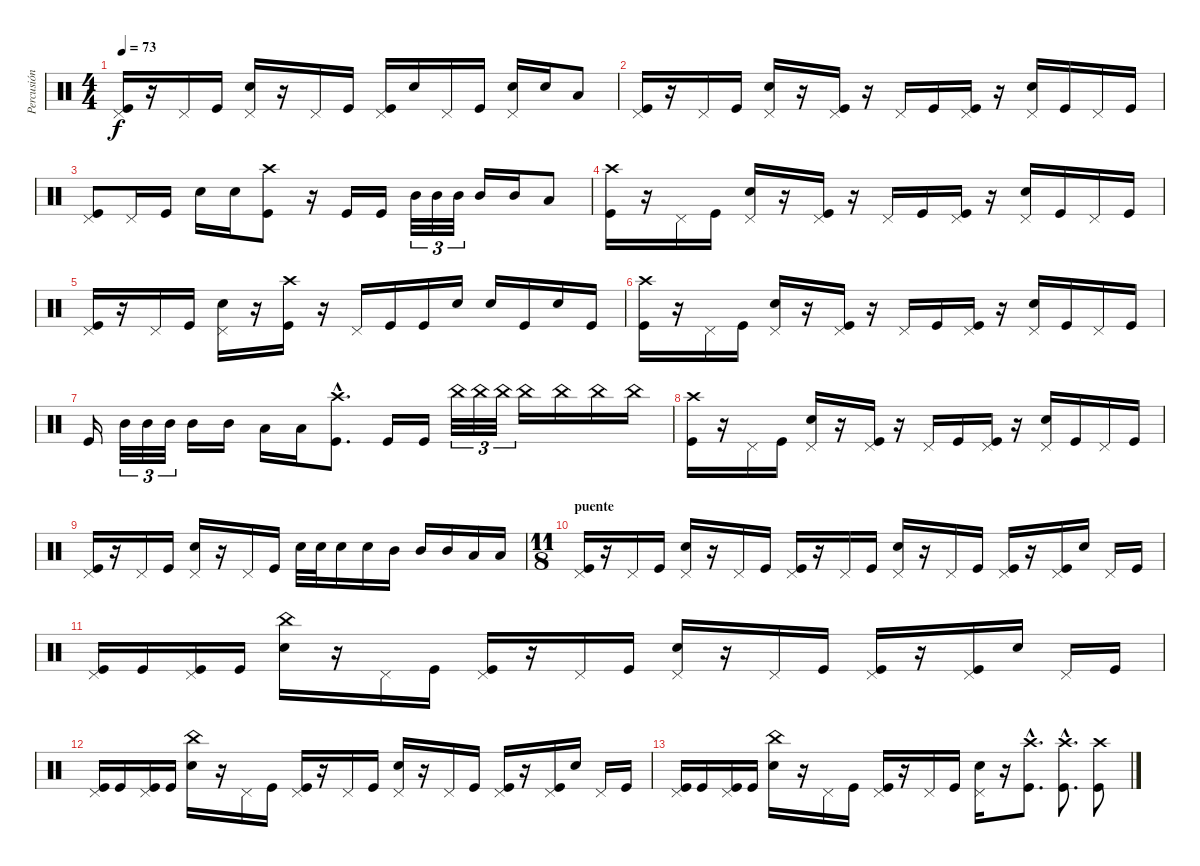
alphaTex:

\track ("Percusión" "Percusión") {instrument percussion}
\staff {score}
\articulation defaults
\ts (4 4)
\tempo 73
\clef neutral
\ks c
("Pedal Hi-Hat (hit)" "Kick (hit)").16{dy f} r.16 "Pedal Hi-Hat (hit)".16 "Kick (hit)".16 ("Pedal Hi-Hat (hit)" "Electric Snare (hit)").16 r.16 "Pedal Hi-Hat (hit)".16 "Kick (hit)".16 ("Pedal Hi-Hat (hit)" "Kick (hit)").16 "Electric Snare (hit)".16 "Pedal Hi-Hat (hit)".16 "Kick (hit)".16 ("Pedal Hi-Hat (hit)" "Electric Snare (hit)").16 "Electric Snare (hit)".16 "Low Tom (hit)".8 |
("Pedal Hi-Hat (hit)" "Kick (hit)").16 r.16 "Pedal Hi-Hat (hit)".16 "Kick (hit)".16 ("Pedal Hi-Hat (hit)" "Electric Snare (hit)").16 r.16 ("Pedal Hi-Hat (hit)" "Kick (hit)").16 r.16 "Pedal Hi-Hat (hit)".16 "Kick (hit)".16 ("Pedal Hi-Hat (hit)" "Kick (hit)").16 r.16 ("Pedal Hi-Hat (hit)" "Electric Snare (hit)").16 "Kick (hit)".16 "Pedal Hi-Hat (hit)".16 "Kick (hit)".16 |
("Pedal Hi-Hat (hit)" "Kick (hit)").8 "Pedal Hi-Hat (hit)".16 "Kick (hit)".16 "Electric Snare (hit)".16 "Electric Snare (hit)".16 ("Crash high (hit)" "Kick (hit)").8 r.16 "Kick (hit)".16 "Kick (hit)".16 "Mid Tom (hit)".32{tu (3 2)} "Mid Tom (hit)".32{tu (3 2)} "Mid Tom (hit)".32{tu (3 2)} "Mid Tom (hit)".16 "Mid Tom (hit)".16 "Low Tom (hit)".8 |
("Crash high (hit)" "Kick (hit)").16 r.16 "Pedal Hi-Hat (hit)".16 "Kick (hit)".16 ("Pedal Hi-Hat (hit)" "Electric Snare (hit)").16 r.16 ("Pedal Hi-Hat (hit)" "Kick (hit)").16 r.16 "Pedal Hi-Hat (hit)".16 "Kick (hit)".16 ("Pedal Hi-Hat (hit)" "Kick (hit)").16 r.16 ("Pedal Hi-Hat (hit)" "Electric Snare (hit)").16 "Kick (hit)".16 "Pedal Hi-Hat (hit)".16 "Kick (hit)".16 |
("Pedal Hi-Hat (hit)" "Kick (hit)").16 r.16 "Pedal Hi-Hat (hit)".16 "Kick (hit)".16 ("Pedal Hi-Hat (hit)" "Electric Snare (hit)").16 r.16 ("Crash high (hit)" "Kick (hit)").16 r.16 "Pedal Hi-Hat (hit)".16 "Kick (hit)".16 "Kick (hit)".16 "Electric Snare (hit)".16 "Electric Snare (hit)".16 "Kick (hit)".16 "Electric Snare (hit)".16 "Kick (hit)".16 |
("Crash high (hit)" "Kick (hit)").16 r.16 "Pedal Hi-Hat (hit)".16 "Kick (hit)".16 ("Pedal Hi-Hat (hit)" "Electric Snare (hit)").16 r.16 ("Pedal Hi-Hat (hit)" "Kick (hit)").16 r.16 "Pedal Hi-Hat (hit)".16 "Kick (hit)".16 ("Pedal Hi-Hat (hit)" "Kick (hit)").16 r.16 ("Pedal Hi-Hat (hit)" "Electric Snare (hit)").16 "Kick (hit)".16 "Pedal Hi-Hat (hit)".16 "Kick (hit)".16 |
"Kick (hit)".16 "Mid Tom (hit)".32{tu (3 2)} "Mid Tom (hit)".32{tu (3 2)} "Mid Tom (hit)".32{tu (3 2)} "Mid Tom (hit)".16 "Mid Tom (hit)".16 "Low Tom (hit)".16 "Low Tom (hit)".16 ("Crash high (hit)"{hac} "Kick (hit)"{hac}).8{d} "Kick (hit)".16 "Kick (hit)".16 "China (hit)".32{tu (3 2)} "China (hit)".32{tu (3 2)} "China (hit)".32{tu (3 2)} "China (hit)".16 "China (hit)".16 "China (hit)".16 "China (hit)".16 |
("Crash high (hit)" "Kick (hit)").16 r.16 "Pedal Hi-Hat (hit)".16 "Kick (hit)".16 ("Pedal Hi-Hat (hit)" "Electric Snare (hit)").16 r.16 ("Pedal Hi-Hat (hit)" "Kick (hit)").16 r.16 "Pedal Hi-Hat (hit)".16 "Kick (hit)".16 ("Pedal Hi-Hat (hit)" "Kick (hit)").16 r.16 ("Pedal Hi-Hat (hit)" "Electric Snare (hit)").16 "Kick (hit)".16 "Pedal Hi-Hat (hit)".16 "Kick (hit)".16 |
("Pedal Hi-Hat (hit)" "Kick (hit)").16 r.16 "Pedal Hi-Hat (hit)".16 "Kick (hit)".16 ("Pedal Hi-Hat (hit)" "Electric Snare (hit)").16 r.16 "Pedal Hi-Hat (hit)".16 "Kick (hit)".16 "Electric Snare (hit)".32 "Electric Snare (hit)".32 "Electric Snare (hit)".16 "Electric Snare (hit)".16 "Mid Tom (hit)".16 "Mid Tom (hit)".16 "Mid Tom (hit)".16 "Low Tom (hit)".16 "Low Tom (hit)".16 |
\ts (11 8)
\section ("" "puente")
("Pedal Hi-Hat (hit)" "Kick (hit)").16 r.16 "Pedal Hi-Hat (hit)".16 "Kick (hit)".16 ("Pedal Hi-Hat (hit)" "Electric Snare (hit)").16 r.16 "Pedal Hi-Hat (hit)".16 "Kick (hit)".16 ("Pedal Hi-Hat (hit)" "Kick (hit)").16 r.16 "Pedal Hi-Hat (hit)".16 "Kick (hit)".16 ("Pedal Hi-Hat (hit)" "Electric Snare (hit)").16 r.16 "Pedal Hi-Hat (hit)".16 "Kick (hit)".16 ("Pedal Hi-Hat (hit)" "Kick (hit)").16 r.16 ("Pedal Hi-Hat (hit)" "Kick (hit)").16 "Electric Snare (hit)".16 "Pedal Hi-Hat (hit)".16 "Kick (hit)".16 |
("Pedal Hi-Hat (hit)" "Kick (hit)").16 "Kick (hit)".16 ("Pedal Hi-Hat (hit)" "Kick (hit)").16 "Kick (hit)".16 ("China (hit)" "Electric Snare (hit)").16 r.16 "Pedal Hi-Hat (hit)".16 "Kick (hit)".16 ("Pedal Hi-Hat (hit)" "Kick (hit)").16 r.16 "Pedal Hi-Hat (hit)".16 "Kick (hit)".16 ("Pedal Hi-Hat (hit)" "Electric Snare (hit)").16 r.16 "Pedal Hi-Hat (hit)".16 "Kick (hit)".16 ("Pedal Hi-Hat (hit)" "Kick (hit)").16 r.16 ("Pedal Hi-Hat (hit)" "Kick (hit)").16 "Electric Snare (hit)".16 "Pedal Hi-Hat (hit)".16 "Kick (hit)".16 |
("Pedal Hi-Hat (hit)" "Kick (hit)").16 "Kick (hit)".16 ("Pedal Hi-Hat (hit)" "Kick (hit)").16 "Kick (hit)".16 ("China (hit)" "Electric Snare (hit)").16 r.16 "Pedal Hi-Hat (hit)".16 "Kick (hit)".16 ("Pedal Hi-Hat (hit)" "Kick (hit)").16 r.16 "Pedal Hi-Hat (hit)".16 "Kick (hit)".16 ("Pedal Hi-Hat (hit)" "Electric Snare (hit)").16 r.16 "Pedal Hi-Hat (hit)".16 "Kick (hit)".16 ("Pedal Hi-Hat (hit)" "Kick (hit)").16 r.16 ("Pedal Hi-Hat (hit)" "Kick (hit)").16 "Electric Snare (hit)".16 "Pedal Hi-Hat (hit)".16 "Kick (hit)".16 |
("Pedal Hi-Hat (hit)" "Kick (hit)").16 "Kick (hit)".16 ("Pedal Hi-Hat (hit)" "Kick (hit)").16 "Kick (hit)".16 ("China (hit)" "Electric Snare (hit)").16 r.16 "Pedal Hi-Hat (hit)".16 "Kick (hit)".16 ("Pedal Hi-Hat (hit)" "Kick (hit)").16 r.16 "Pedal Hi-Hat (hit)".16 "Kick (hit)".16 ("Pedal Hi-Hat (hit)" "Electric Snare (hit)").16 r.16 ("Crash high (hit)"{hac} "Kick (hit)"{hac}).8{d} ("Crash high (hit)"{hac} "Kick (hit)"{hac}).8{d} ("Crash high (hit)" "Kick (hit)").8
